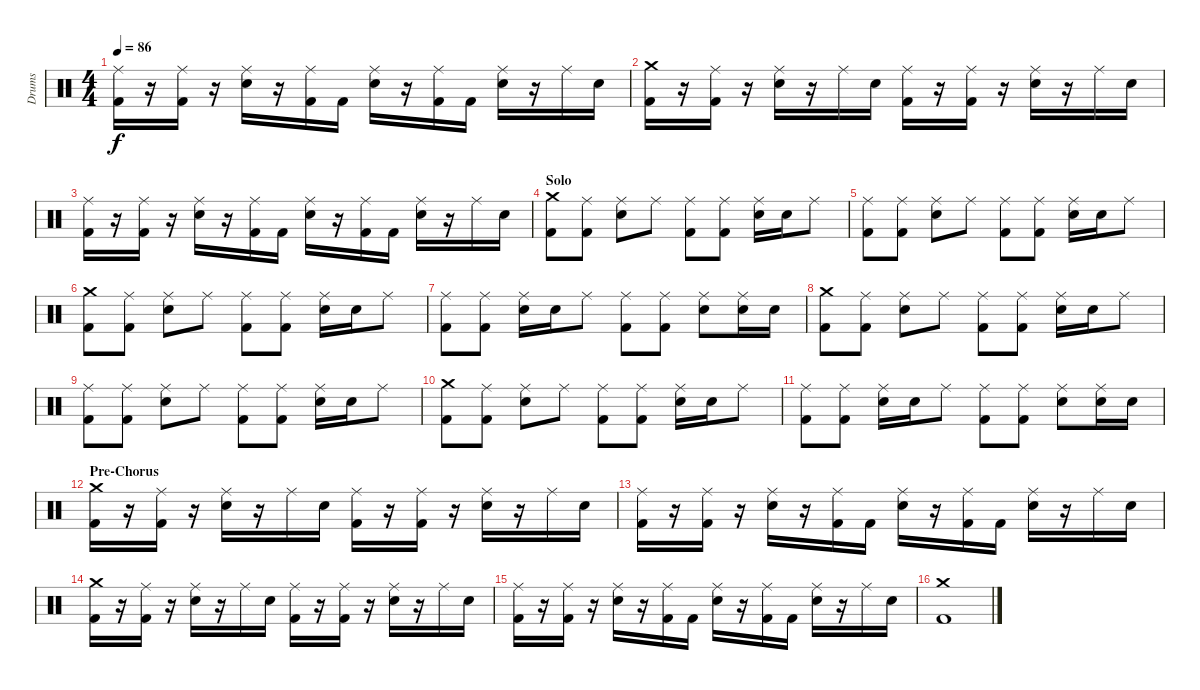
\track ("Drums" "Drums") {instrument percussion}
\staff {score}
\articulation defaults
\ts (4 4)
\tempo 86
\clef neutral
\ks c
("Ride (middle)" "Kick (hit) 2").16{dy f} r.16 ("Ride (middle)" "Kick (hit) 2").16 r.16 ("Ride (middle)" "Snare (hit) 2").16 r.16 ("Ride (middle)" "Kick (hit) 2").16 "Kick (hit) 2".16 ("Ride (middle)" "Snare (hit) 2").16 r.16 ("Ride (middle)" "Kick (hit) 2").16 "Kick (hit) 2".16 ("Ride (middle)" "Snare (hit) 2").16 r.16 "Ride (middle)".16 "Snare (hit) 2".16 |
("Crash medium (hit)" "Kick (hit) 2").16 r.16 ("Ride (middle)" "Kick (hit) 2").16 r.16 ("Ride (middle)" "Snare (hit) 2").16 r.16 "Ride (middle)".16 "Snare (hit) 2".16 ("Ride (middle)" "Kick (hit) 2").16 r.16 ("Ride (middle)" "Kick (hit) 2").16 r.16 ("Ride (middle)" "Snare (hit) 2").16 r.16 "Ride (middle)".16 "Snare (hit) 2".16 |
("Ride (middle)" "Kick (hit) 2").16 r.16 ("Ride (middle)" "Kick (hit) 2").16 r.16 ("Ride (middle)" "Snare (hit) 2").16 r.16 ("Ride (middle)" "Kick (hit) 2").16 "Kick (hit) 2".16 ("Ride (middle)" "Snare (hit) 2").16 r.16 ("Ride (middle)" "Kick (hit) 2").16 "Kick (hit) 2".16 ("Ride (middle)" "Snare (hit) 2").16 r.16 "Ride (middle)".16 "Snare (hit) 2".16 |
\section ("" "Solo")
("Crash medium (hit)" "Kick (hit) 2").8 ("Ride (middle)" "Kick (hit) 2").8 ("Ride (middle)" "Snare (hit) 2").8 "Ride (middle)".8 ("Ride (middle)" "Kick (hit) 2").8 ("Ride (middle)" "Kick (hit) 2").8 ("Ride (middle)" "Snare (hit) 2").16 "Snare (hit) 2".16 "Ride (middle)".8 |
("Ride (middle)" "Kick (hit) 2").8 ("Ride (middle)" "Kick (hit) 2").8 ("Ride (middle)" "Snare (hit) 2").8 "Ride (middle)".8 ("Ride (middle)" "Kick (hit) 2").8 ("Ride (middle)" "Kick (hit) 2").8 ("Ride (middle)" "Snare (hit) 2").16 "Snare (hit) 2".16 "Ride (middle)".8 |
("Crash medium (hit)" "Kick (hit) 2").8 ("Ride (middle)" "Kick (hit) 2").8 ("Ride (middle)" "Snare (hit) 2").8 "Ride (middle)".8 ("Ride (middle)" "Kick (hit) 2").8 ("Ride (middle)" "Kick (hit) 2").8 ("Ride (middle)" "Snare (hit) 2").16 "Snare (hit) 2".16 "Ride (middle)".8 |
("Ride (middle)" "Kick (hit) 2").8 ("Ride (middle)" "Kick (hit) 2").8 ("Ride (middle)" "Snare (hit) 2").16 "Snare (hit) 2".16 "Ride (middle)".8 ("Ride (middle)" "Kick (hit) 2").8 ("Ride (middle)" "Kick (hit) 2").8 ("Ride (middle)" "Snare (hit) 2").8 ("Ride (middle)" "Snare (hit) 2").16 "Snare (hit) 2".16 |
("Crash medium (hit)" "Kick (hit) 2").8 ("Ride (middle)" "Kick (hit) 2").8 ("Ride (middle)" "Snare (hit) 2").8 "Ride (middle)".8 ("Ride (middle)" "Kick (hit) 2").8 ("Ride (middle)" "Kick (hit) 2").8 ("Ride (middle)" "Snare (hit) 2").16 "Snare (hit) 2".16 "Ride (middle)".8 |
("Ride (middle)" "Kick (hit) 2").8 ("Ride (middle)" "Kick (hit) 2").8 ("Ride (middle)" "Snare (hit) 2").8 "Ride (middle)".8 ("Ride (middle)" "Kick (hit) 2").8 ("Ride (middle)" "Kick (hit) 2").8 ("Ride (middle)" "Snare (hit) 2").16 "Snare (hit) 2".16 "Ride (middle)".8 |
("Crash medium (hit)" "Kick (hit) 2").8 ("Ride (middle)" "Kick (hit) 2").8 ("Ride (middle)" "Snare (hit) 2").8 "Ride (middle)".8 ("Ride (middle)" "Kick (hit) 2").8 ("Ride (middle)" "Kick (hit) 2").8 ("Ride (middle)" "Snare (hit) 2").16 "Snare (hit) 2".16 "Ride (middle)".8 |
("Ride (middle)" "Kick (hit) 2").8 ("Ride (middle)" "Kick (hit) 2").8 ("Ride (middle)" "Snare (hit) 2").16 "Snare (hit) 2".16 "Ride (middle)".8 ("Ride (middle)" "Kick (hit) 2").8 ("Ride (middle)" "Kick (hit) 2").8 ("Ride (middle)" "Snare (hit) 2").8 ("Ride (middle)" "Snare (hit) 2").16 "Snare (hit) 2".16 |
\section ("" "Pre-Chorus")
("Crash medium (hit)" "Kick (hit) 2").16 r.16 ("Ride (middle)" "Kick (hit) 2").16 r.16 ("Ride (middle)" "Snare (hit) 2").16 r.16 "Ride (middle)".16 "Snare (hit) 2".16 ("Ride (middle)" "Kick (hit) 2").16 r.16 ("Ride (middle)" "Kick (hit) 2").16 r.16 ("Ride (middle)" "Snare (hit) 2").16 r.16 "Ride (middle)".16 "Snare (hit) 2".16 |
("Ride (middle)" "Kick (hit) 2").16 r.16 ("Ride (middle)" "Kick (hit) 2").16 r.16 ("Ride (middle)" "Snare (hit) 2").16 r.16 ("Ride (middle)" "Kick (hit) 2").16 "Kick (hit) 2".16 ("Ride (middle)" "Snare (hit) 2").16 r.16 ("Ride (middle)" "Kick (hit) 2").16 "Kick (hit) 2".16 ("Ride (middle)" "Snare (hit) 2").16 r.16 "Ride (middle)".16 "Snare (hit) 2".16 |
("Crash medium (hit)" "Kick (hit) 2").16 r.16 ("Ride (middle)" "Kick (hit) 2").16 r.16 ("Ride (middle)" "Snare (hit) 2").16 r.16 "Ride (middle)".16 "Snare (hit) 2".16 ("Ride (middle)" "Kick (hit) 2").16 r.16 ("Ride (middle)" "Kick (hit) 2").16 r.16 ("Ride (middle)" "Snare (hit) 2").16 r.16 "Ride (middle)".16 "Snare (hit) 2".16 |
("Ride (middle)" "Kick (hit) 2").16 r.16 ("Ride (middle)" "Kick (hit) 2").16 r.16 ("Ride (middle)" "Snare (hit) 2").16 r.16 ("Ride (middle)" "Kick (hit) 2").16 "Kick (hit) 2".16 ("Ride (middle)" "Snare (hit) 2").16 r.16 ("Ride (middle)" "Kick (hit) 2").16 "Kick (hit) 2".16 ("Ride (middle)" "Snare (hit) 2").16 r.16 "Ride (middle)".16 "Snare (hit) 2".16 |
("Crash medium (hit)" "Kick (hit) 2").1
